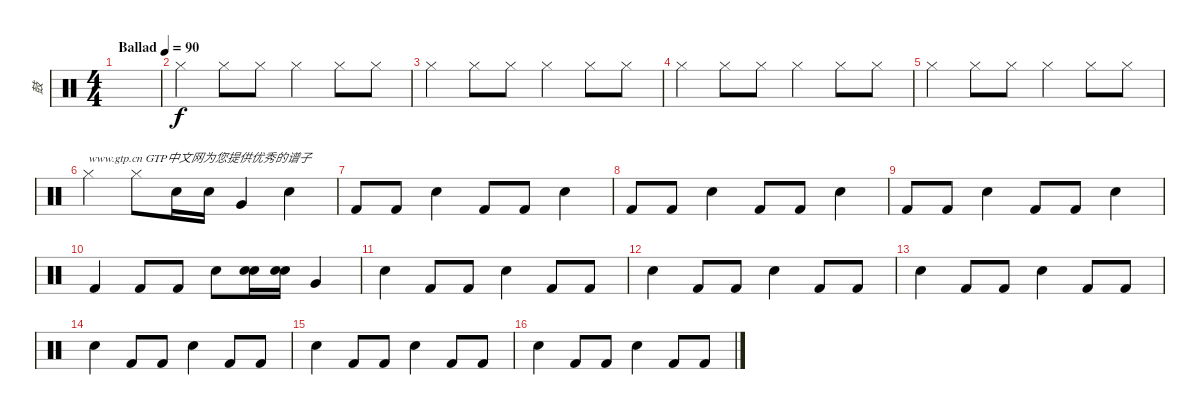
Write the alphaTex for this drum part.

\track ("鼓" "鼓") {instrument percussion}
\staff {score}
\articulation defaults
\ts (4 4)
\tempo (90 "Ballad")
\clef neutral
\ks c
|
"Hi-Hat (closed)".4 "Hi-Hat (closed)".8 "Hi-Hat (closed)".8 "Hi-Hat (closed)".4 "Hi-Hat (closed)".8 "Hi-Hat (closed)".8 |
"Hi-Hat (closed)".4 "Hi-Hat (closed)".8 "Hi-Hat (closed)".8 "Hi-Hat (closed)".4 "Hi-Hat (closed)".8 "Hi-Hat (closed)".8 |
"Hi-Hat (closed)".4 "Hi-Hat (closed)".8 "Hi-Hat (closed)".8 "Hi-Hat (closed)".4 "Hi-Hat (closed)".8 "Hi-Hat (closed)".8 |
"Hi-Hat (closed)".4 "Hi-Hat (closed)".8 "Hi-Hat (closed)".8 "Hi-Hat (closed)".4 "Hi-Hat (closed)".8 "Hi-Hat (closed)".8 |
"Hi-Hat (closed)".4{txt "www.gtp.cn GTP中文网为您提供优秀的谱子"} "Hi-Hat (closed)".8 "Electric Snare (hit)".16 "Electric Snare (hit)".16 "Very Low Tom (hit)".4 "Snare (hit) 2".4 |
"Kick (hit) 2".8 "Kick (hit) 2".8 "Snare (hit) 2".4 "Kick (hit) 2".8 "Kick (hit) 2".8 "Snare (hit) 2".4 |
"Kick (hit) 2".8 "Kick (hit) 2".8 "Snare (hit) 2".4 "Kick (hit) 2".8 "Kick (hit) 2".8 "Snare (hit) 2".4 |
"Kick (hit) 2".8 "Kick (hit) 2".8 "Snare (hit) 2".4 "Kick (hit) 2".8 "Kick (hit) 2".8 "Snare (hit) 2".4 |
"Kick (hit) 2".4 "Kick (hit) 2".8 "Kick (hit) 2".8 "Snare (hit) 2".8 ("Electric Snare (hit)" "Electric Snare (hit)").16 ("Electric Snare (hit)" "Electric Snare (hit)").16 "Very Low Tom (hit)".4 |
"Snare (hit) 2".4 "Kick (hit) 2".8 "Kick (hit) 2".8 "Snare (hit) 2".4 "Kick (hit) 2".8 "Kick (hit) 2".8 |
"Snare (hit) 2".4 "Kick (hit) 2".8 "Kick (hit) 2".8 "Snare (hit) 2".4 "Kick (hit) 2".8 "Kick (hit) 2".8 |
"Snare (hit) 2".4 "Kick (hit) 2".8 "Kick (hit) 2".8 "Snare (hit) 2".4 "Kick (hit) 2".8 "Kick (hit) 2".8 |
"Snare (hit) 2".4 "Kick (hit) 2".8 "Kick (hit) 2".8 "Snare (hit) 2".4 "Kick (hit) 2".8 "Kick (hit) 2".8 |
"Snare (hit) 2".4 "Kick (hit) 2".8 "Kick (hit) 2".8 "Snare (hit) 2".4 "Kick (hit) 2".8 "Kick (hit) 2".8 |
"Snare (hit) 2".4 "Kick (hit) 2".8 "Kick (hit) 2".8 "Snare (hit) 2".4 "Kick (hit) 2".8 "Kick (hit) 2".8
